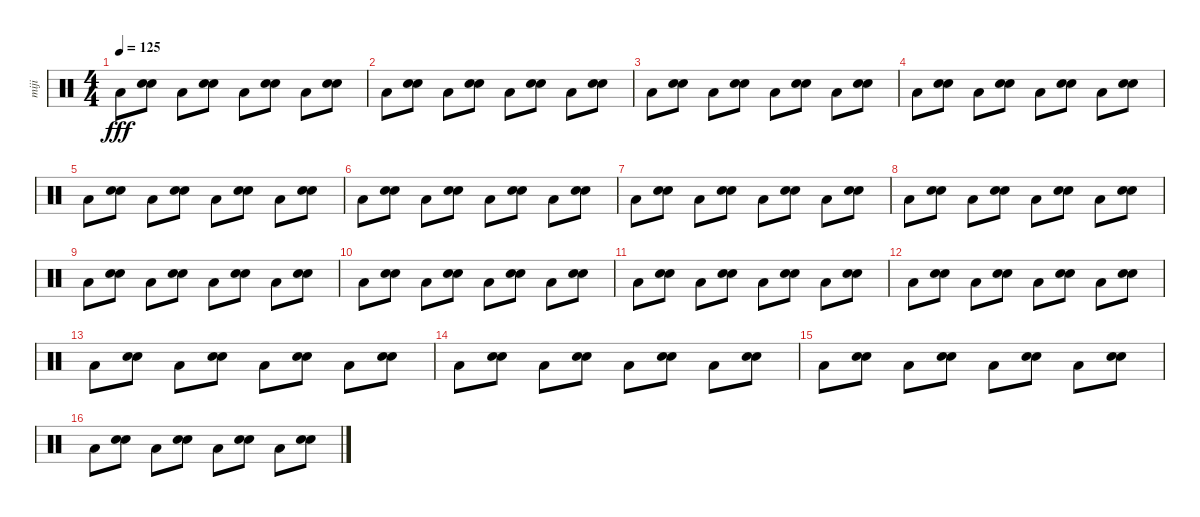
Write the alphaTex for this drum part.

\track ("miji" "miji") {instrument percussion}
\staff {score}
\articulation defaults
\ts (4 4)
\tempo 125
\clef neutral
\ks c "Low Floor Tom (hit)".8{dy fff}
("Electric Snare (hit)" "Electric Snare (hit)").8 "Low Floor Tom (hit)".8 ("Electric Snare (hit)" "Electric Snare (hit)").8 "Low Floor Tom (hit)".8 ("Electric Snare (hit)" "Electric Snare (hit)").8 "Low Floor Tom (hit)".8 ("Electric Snare (hit)" "Electric Snare (hit)").8 |
"Low Floor Tom (hit)".8 ("Electric Snare (hit)" "Electric Snare (hit)").8 "Low Floor Tom (hit)".8 ("Electric Snare (hit)" "Electric Snare (hit)").8 "Low Floor Tom (hit)".8 ("Electric Snare (hit)" "Electric Snare (hit)").8 "Low Floor Tom (hit)".8 ("Electric Snare (hit)" "Electric Snare (hit)").8 |
"Low Floor Tom (hit)".8 ("Electric Snare (hit)" "Electric Snare (hit)").8 "Low Floor Tom (hit)".8 ("Electric Snare (hit)" "Electric Snare (hit)").8 "Low Floor Tom (hit)".8 ("Electric Snare (hit)" "Electric Snare (hit)").8 "Low Floor Tom (hit)".8 ("Electric Snare (hit)" "Electric Snare (hit)").8 |
"Low Floor Tom (hit)".8 ("Electric Snare (hit)" "Electric Snare (hit)").8 "Low Floor Tom (hit)".8 ("Electric Snare (hit)" "Electric Snare (hit)").8 "Low Floor Tom (hit)".8 ("Electric Snare (hit)" "Electric Snare (hit)").8 "Low Floor Tom (hit)".8 ("Electric Snare (hit)" "Electric Snare (hit)").8 |
"Low Floor Tom (hit)".8 ("Electric Snare (hit)" "Electric Snare (hit)").8 "Low Floor Tom (hit)".8 ("Electric Snare (hit)" "Electric Snare (hit)").8 "Low Floor Tom (hit)".8 ("Electric Snare (hit)" "Electric Snare (hit)").8 "Low Floor Tom (hit)".8 ("Electric Snare (hit)" "Electric Snare (hit)").8 |
"Low Floor Tom (hit)".8 ("Electric Snare (hit)" "Electric Snare (hit)").8 "Low Floor Tom (hit)".8 ("Electric Snare (hit)" "Electric Snare (hit)").8 "Low Floor Tom (hit)".8 ("Electric Snare (hit)" "Electric Snare (hit)").8 "Low Floor Tom (hit)".8 ("Electric Snare (hit)" "Electric Snare (hit)").8 |
"Low Floor Tom (hit)".8 ("Electric Snare (hit)" "Electric Snare (hit)").8 "Low Floor Tom (hit)".8 ("Electric Snare (hit)" "Electric Snare (hit)").8 "Low Floor Tom (hit)".8 ("Electric Snare (hit)" "Electric Snare (hit)").8 "Low Floor Tom (hit)".8 ("Electric Snare (hit)" "Electric Snare (hit)").8 |
"Low Floor Tom (hit)".8 ("Electric Snare (hit)" "Electric Snare (hit)").8 "Low Floor Tom (hit)".8 ("Electric Snare (hit)" "Electric Snare (hit)").8 "Low Floor Tom (hit)".8 ("Electric Snare (hit)" "Electric Snare (hit)").8 "Low Floor Tom (hit)".8 ("Electric Snare (hit)" "Electric Snare (hit)").8 |
"Low Floor Tom (hit)".8 ("Electric Snare (hit)" "Electric Snare (hit)").8 "Low Floor Tom (hit)".8 ("Electric Snare (hit)" "Electric Snare (hit)").8 "Low Floor Tom (hit)".8 ("Electric Snare (hit)" "Electric Snare (hit)").8 "Low Floor Tom (hit)".8 ("Electric Snare (hit)" "Electric Snare (hit)").8 |
"Low Floor Tom (hit)".8 ("Electric Snare (hit)" "Electric Snare (hit)").8 "Low Floor Tom (hit)".8 ("Electric Snare (hit)" "Electric Snare (hit)").8 "Low Floor Tom (hit)".8 ("Electric Snare (hit)" "Electric Snare (hit)").8 "Low Floor Tom (hit)".8 ("Electric Snare (hit)" "Electric Snare (hit)").8 |
"Low Floor Tom (hit)".8 ("Electric Snare (hit)" "Electric Snare (hit)").8 "Low Floor Tom (hit)".8 ("Electric Snare (hit)" "Electric Snare (hit)").8 "Low Floor Tom (hit)".8 ("Electric Snare (hit)" "Electric Snare (hit)").8 "Low Floor Tom (hit)".8 ("Electric Snare (hit)" "Electric Snare (hit)").8 |
"Low Floor Tom (hit)".8 ("Electric Snare (hit)" "Electric Snare (hit)").8 "Low Floor Tom (hit)".8 ("Electric Snare (hit)" "Electric Snare (hit)").8 "Low Floor Tom (hit)".8 ("Electric Snare (hit)" "Electric Snare (hit)").8 "Low Floor Tom (hit)".8 ("Electric Snare (hit)" "Electric Snare (hit)").8 |
"Low Floor Tom (hit)".8 ("Electric Snare (hit)" "Electric Snare (hit)").8 "Low Floor Tom (hit)".8 ("Electric Snare (hit)" "Electric Snare (hit)").8 "Low Floor Tom (hit)".8 ("Electric Snare (hit)" "Electric Snare (hit)").8 "Low Floor Tom (hit)".8 ("Electric Snare (hit)" "Electric Snare (hit)").8 |
"Low Floor Tom (hit)".8 ("Electric Snare (hit)" "Electric Snare (hit)").8 "Low Floor Tom (hit)".8 ("Electric Snare (hit)" "Electric Snare (hit)").8 "Low Floor Tom (hit)".8 ("Electric Snare (hit)" "Electric Snare (hit)").8 "Low Floor Tom (hit)".8 ("Electric Snare (hit)" "Electric Snare (hit)").8 |
"Low Floor Tom (hit)".8 ("Electric Snare (hit)" "Electric Snare (hit)").8 "Low Floor Tom (hit)".8 ("Electric Snare (hit)" "Electric Snare (hit)").8 "Low Floor Tom (hit)".8 ("Electric Snare (hit)" "Electric Snare (hit)").8 "Low Floor Tom (hit)".8 ("Electric Snare (hit)" "Electric Snare (hit)").8 |
"Low Floor Tom (hit)".8 ("Electric Snare (hit)" "Electric Snare (hit)").8 "Low Floor Tom (hit)".8 ("Electric Snare (hit)" "Electric Snare (hit)").8 "Low Floor Tom (hit)".8 ("Electric Snare (hit)" "Electric Snare (hit)").8 "Low Floor Tom (hit)".8 ("Electric Snare (hit)" "Electric Snare (hit)").8
